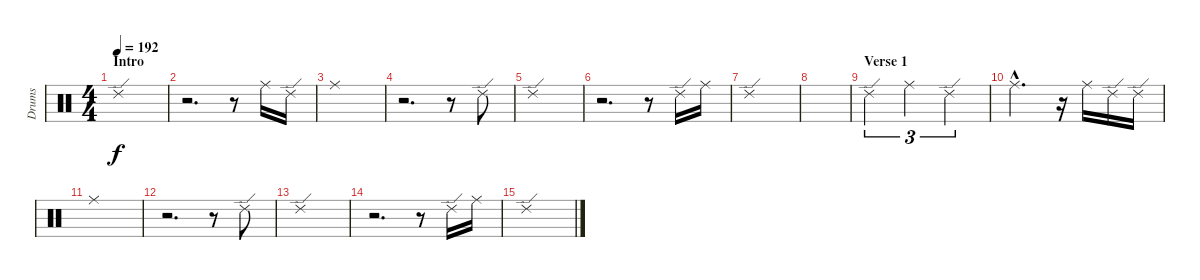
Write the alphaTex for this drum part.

\track ("Drums" "Drums") {instrument percussion}
\staff {score}
\articulation defaults
\ts (4 4)
\section ("" "Intro")
\tempo 192
\tempo 144
\tempo 192
\clef neutral
\ks c "Ride (edge) 2".1{dy f}
|
r.2{d} r.8 "Ride (middle)".16 "Ride (edge) 2".16 |
"Ride (middle)".1 |
r.2{d} r.8 "Ride (edge) 2".8 |
"Ride (edge) 2".1 |
r.2{d} r.8 "Ride (edge) 2".16 "Ride (middle)".16 |
"Ride (edge) 2".1 |
|
\section ("" "Verse 1")
"Ride (edge) 2".2{tu (3 2)} "Ride (middle)".2{tu (3 2)} "Ride (edge) 2".2{tu (3 2)} |
"Ride (middle)"{hac}.2{d} r.16 "Ride (middle)".16 "Ride (edge) 2".16 "Ride (edge) 2".16 |
"Ride (middle)".1 |
r.2{d} r.8 "Ride (edge) 2".8 |
"Ride (edge) 2".1 |
r.2{d} r.8 "Ride (edge) 2".16 "Ride (middle)".16 |
"Ride (edge) 2".1
